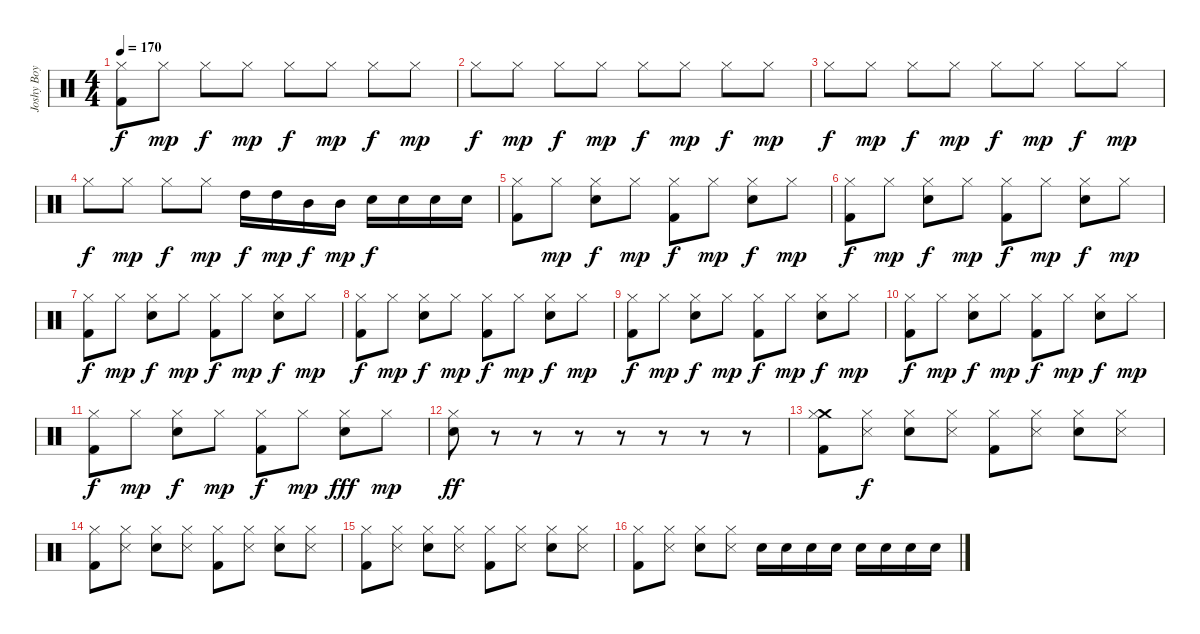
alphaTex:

\track ("Joshy Boy" "Joshy Boy") {instrument percussion}
\staff {score}
\articulation defaults
\ts (4 4)
\tempo 170
\clef neutral
\ks c
("Kick (hit) 2" "Hi-Hat (closed)").8{dy f} "Hi-Hat (closed)".8{dy mp} "Hi-Hat (closed)".8{dy f} "Hi-Hat (closed)".8{dy mp} "Hi-Hat (closed)".8{dy f} "Hi-Hat (closed)".8{dy mp} "Hi-Hat (closed)".8{dy f} "Hi-Hat (closed)".8{dy mp} |
"Hi-Hat (closed)".8{dy f} "Hi-Hat (closed)".8{dy mp} "Hi-Hat (closed)".8{dy f} "Hi-Hat (closed)".8{dy mp} "Hi-Hat (closed)".8{dy f} "Hi-Hat (closed)".8{dy mp} "Hi-Hat (closed)".8{dy f} "Hi-Hat (closed)".8{dy mp} |
"Hi-Hat (closed)".8{dy f} "Hi-Hat (closed)".8{dy mp} "Hi-Hat (closed)".8{dy f} "Hi-Hat (closed)".8{dy mp} "Hi-Hat (closed)".8{dy f} "Hi-Hat (closed)".8{dy mp} "Hi-Hat (closed)".8{dy f} "Hi-Hat (closed)".8{dy mp} |
"Hi-Hat (closed)".8{dy f} "Hi-Hat (closed)".8{dy mp} "Hi-Hat (closed)".8{dy f} "Hi-Hat (closed)".8{dy mp} "High Tom (hit)".16{dy f} "High Tom (hit)".16{dy mp} "Mid Tom (hit)".16{dy f} "Mid Tom (hit)".16{dy mp} "Electric Snare (hit)".16{dy f} "Electric Snare (hit)".16 "Electric Snare (hit)".16 "Electric Snare (hit)".16 |
("Kick (hit) 2" "Hi-Hat (closed)").8 "Hi-Hat (closed)".8{dy mp} ("Electric Snare (hit)" "Hi-Hat (closed)").8{dy f} "Hi-Hat (closed)".8{dy mp} ("Kick (hit) 2" "Hi-Hat (closed)").8{dy f} "Hi-Hat (closed)".8{dy mp} ("Electric Snare (hit)" "Hi-Hat (closed)").8{dy f} "Hi-Hat (closed)".8{dy mp} |
("Kick (hit) 2" "Hi-Hat (closed)").8{dy f} "Hi-Hat (closed)".8{dy mp} ("Electric Snare (hit)" "Hi-Hat (closed)").8{dy f} "Hi-Hat (closed)".8{dy mp} ("Kick (hit) 2" "Hi-Hat (closed)").8{dy f} "Hi-Hat (closed)".8{dy mp} ("Electric Snare (hit)" "Hi-Hat (closed)").8{dy f} "Hi-Hat (closed)".8{dy mp} |
("Kick (hit) 2" "Hi-Hat (closed)").8{dy f} "Hi-Hat (closed)".8{dy mp} ("Electric Snare (hit)" "Hi-Hat (closed)").8{dy f} "Hi-Hat (closed)".8{dy mp} ("Kick (hit) 2" "Hi-Hat (closed)").8{dy f} "Hi-Hat (closed)".8{dy mp} ("Electric Snare (hit)" "Hi-Hat (closed)").8{dy f} "Hi-Hat (closed)".8{dy mp} |
("Kick (hit) 2" "Hi-Hat (closed)").8{dy f} "Hi-Hat (closed)".8{dy mp} ("Electric Snare (hit)" "Hi-Hat (closed)").8{dy f} "Hi-Hat (closed)".8{dy mp} ("Kick (hit) 2" "Hi-Hat (closed)").8{dy f} "Hi-Hat (closed)".8{dy mp} ("Electric Snare (hit)" "Hi-Hat (closed)").8{dy f} "Hi-Hat (closed)".8{dy mp} |
("Kick (hit) 2" "Hi-Hat (closed)").8{dy f} "Hi-Hat (closed)".8{dy mp} ("Electric Snare (hit)" "Hi-Hat (closed)").8{dy f} "Hi-Hat (closed)".8{dy mp} ("Kick (hit) 2" "Hi-Hat (closed)").8{dy f} "Hi-Hat (closed)".8{dy mp} ("Electric Snare (hit)" "Hi-Hat (closed)").8{dy f} "Hi-Hat (closed)".8{dy mp} |
("Kick (hit) 2" "Hi-Hat (closed)").8{dy f} "Hi-Hat (closed)".8{dy mp} ("Electric Snare (hit)" "Hi-Hat (closed)").8{dy f} "Hi-Hat (closed)".8{dy mp} ("Kick (hit) 2" "Hi-Hat (closed)").8{dy f} "Hi-Hat (closed)".8{dy mp} ("Electric Snare (hit)" "Hi-Hat (closed)").8{dy f} "Hi-Hat (closed)".8{dy mp} |
("Kick (hit) 2" "Hi-Hat (closed)").8{dy f} "Hi-Hat (closed)".8{dy mp} ("Electric Snare (hit)" "Hi-Hat (closed)").8{dy f} "Hi-Hat (closed)".8{dy mp} ("Kick (hit) 2" "Hi-Hat (closed)").8{dy f} "Hi-Hat (closed)".8{dy mp} ("Electric Snare (hit)" "Hi-Hat (closed)").8{dy fff} "Hi-Hat (closed)".8{dy mp} |
("Electric Snare (hit)" "Hi-Hat (closed)").8{dy ff} r.8 r.8 r.8 r.8 r.8 r.8 r.8 |
("Crash medium (hit)" "Hi-Hat (closed)" "Kick (hit) 2").8 ("Hi-Hat (closed)" "Snare (side stick) 3").8{dy f} ("Hi-Hat (closed)" "Electric Snare (hit)").8 ("Hi-Hat (closed)" "Snare (side stick) 3").8 ("Hi-Hat (closed)" "Kick (hit) 2").8 ("Hi-Hat (closed)" "Snare (side stick) 3").8 ("Hi-Hat (closed)" "Electric Snare (hit)").8 ("Hi-Hat (closed)" "Snare (side stick) 3").8 |
("Hi-Hat (closed)" "Kick (hit) 2").8 ("Hi-Hat (closed)" "Snare (side stick) 3").8 ("Hi-Hat (closed)" "Electric Snare (hit)").8 ("Hi-Hat (closed)" "Snare (side stick) 3").8 ("Hi-Hat (closed)" "Kick (hit) 2").8 ("Hi-Hat (closed)" "Snare (side stick) 3").8 ("Hi-Hat (closed)" "Electric Snare (hit)").8 ("Hi-Hat (closed)" "Snare (side stick) 3").8 |
("Hi-Hat (closed)" "Kick (hit) 2").8 ("Hi-Hat (closed)" "Snare (side stick) 3").8 ("Hi-Hat (closed)" "Electric Snare (hit)").8 ("Hi-Hat (closed)" "Snare (side stick) 3").8 ("Hi-Hat (closed)" "Kick (hit) 2").8 ("Hi-Hat (closed)" "Snare (side stick) 3").8 ("Hi-Hat (closed)" "Electric Snare (hit)").8 ("Hi-Hat (closed)" "Snare (side stick) 3").8 |
("Hi-Hat (closed)" "Kick (hit) 2").8 ("Hi-Hat (closed)" "Snare (side stick) 3").8 ("Hi-Hat (closed)" "Electric Snare (hit)").8 ("Hi-Hat (closed)" "Snare (side stick) 3").8 "Electric Snare (hit)".16 "Electric Snare (hit)".16 "Electric Snare (hit)".16 "Electric Snare (hit)".16 "Electric Snare (hit)".16 "Electric Snare (hit)".16 "Electric Snare (hit)".16 "Electric Snare (hit)".16
